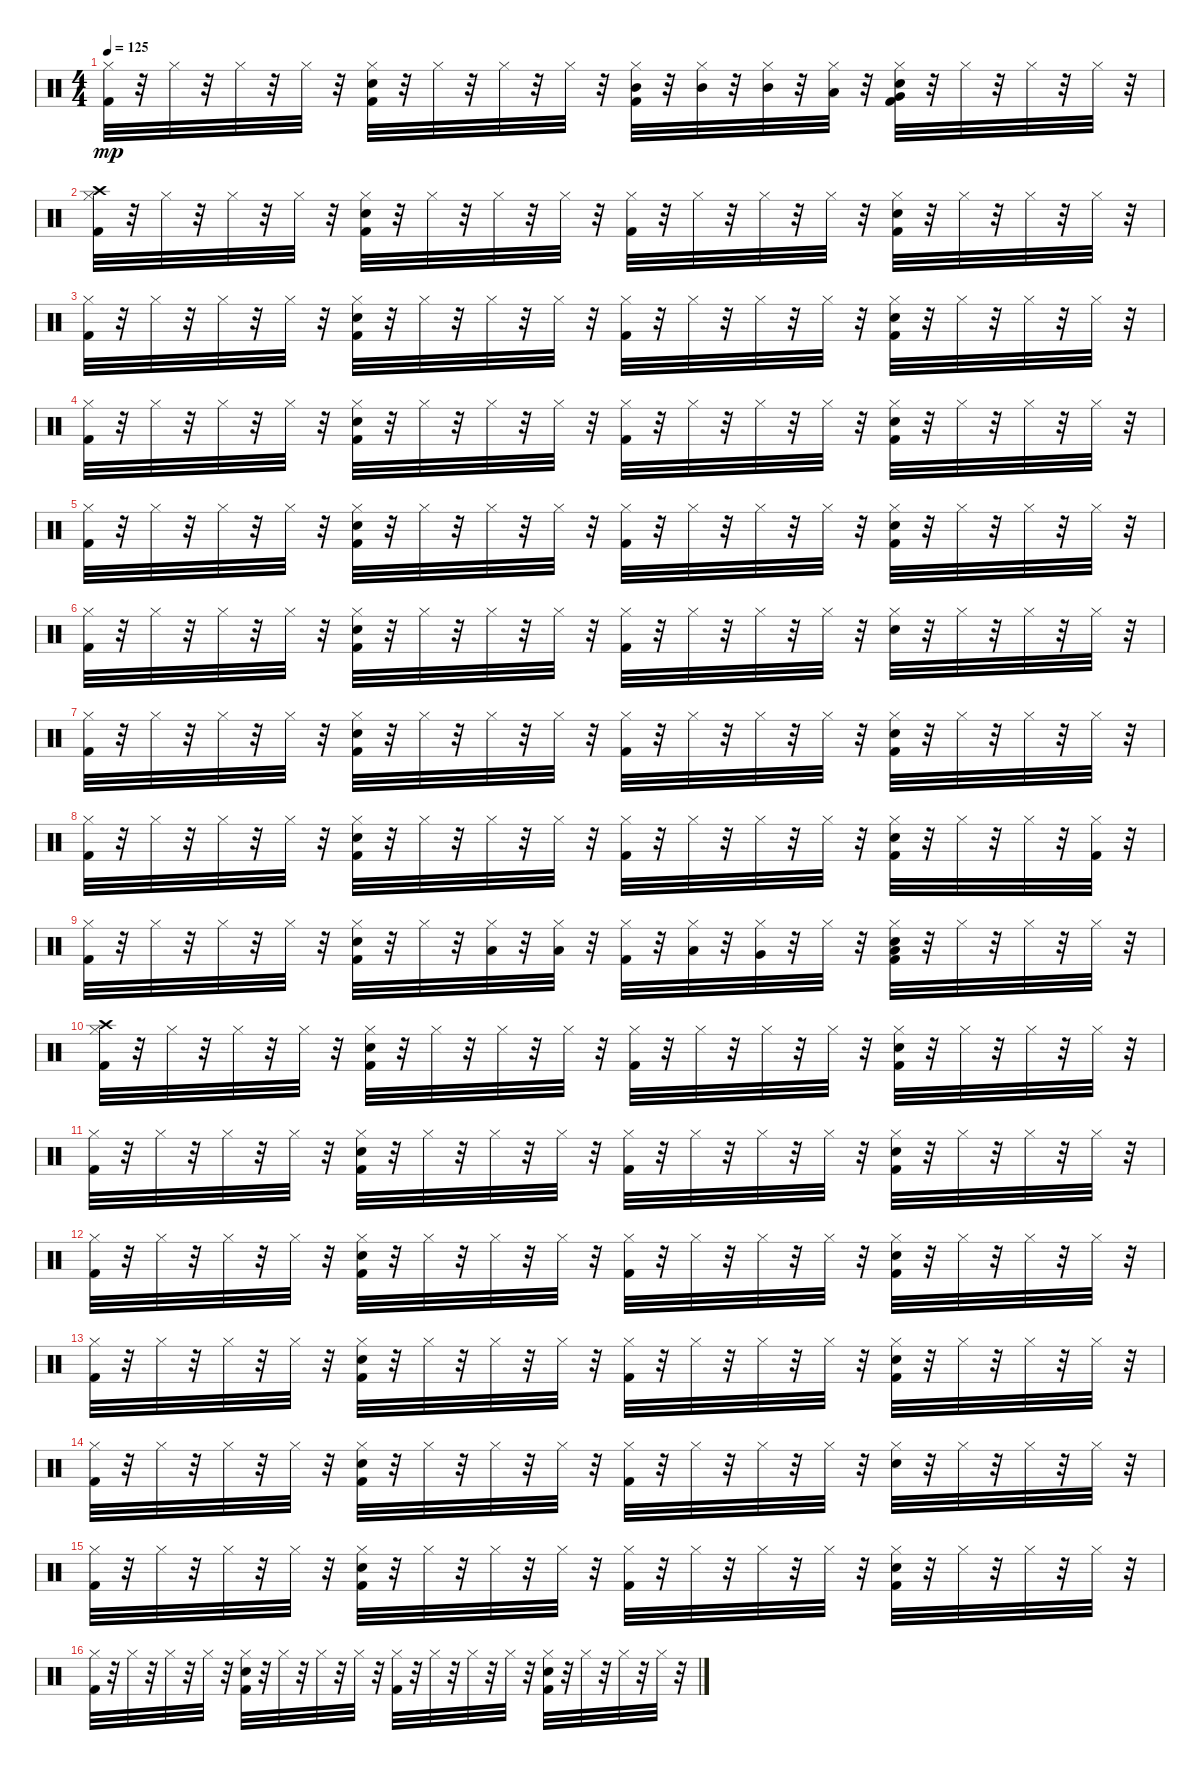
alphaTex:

\track "" {instrument percussion}
\staff {score}
\articulation defaults
\ts (4 4)
\tempo 125
\clef neutral
\ks c
("Kick (hit) 2" "Hi-Hat (closed)").32{dy mp} r.32 "Hi-Hat (closed)".32 r.32 "Hi-Hat (closed)".32 r.32 "Hi-Hat (closed)".32 r.32 ("Kick (hit) 2" "Snare (hit) 2" "Hi-Hat (closed)").32 r.32 "Hi-Hat (closed)".32 r.32 "Hi-Hat (closed)".32 r.32 "Hi-Hat (closed)".32 r.32 ("Mid Tom (hit)" "Kick (hit) 2" "Hi-Hat (closed)").32 r.32 ("Mid Tom (hit)" "Hi-Hat (closed)").32 r.32 ("Mid Tom (hit)" "Hi-Hat (closed)").32 r.32 ("Low Tom (hit)" "Hi-Hat (closed)").32 r.32 ("Very Low Tom (hit)" "Kick (hit) 2" "Snare (hit) 2" "Hi-Hat (closed)").32 r.32 "Hi-Hat (closed)".32 r.32 "Hi-Hat (closed)".32 r.32 "Hi-Hat (closed)".32 r.32 |
("Hi-Hat (closed)" "Kick (hit) 2" "Crash high (hit)").32 r.32 "Hi-Hat (closed)".32 r.32 "Hi-Hat (closed)".32 r.32 "Hi-Hat (closed)".32 r.32 ("Kick (hit) 2" "Hi-Hat (closed)" "Snare (hit) 2").32 r.32 "Hi-Hat (closed)".32 r.32 "Hi-Hat (closed)".32 r.32 "Hi-Hat (closed)".32 r.32 ("Hi-Hat (closed)" "Kick (hit) 2").32 r.32 "Hi-Hat (closed)".32 r.32 "Hi-Hat (closed)".32 r.32 "Hi-Hat (closed)".32 r.32 ("Kick (hit) 2" "Hi-Hat (closed)" "Snare (hit) 2").32 r.32 "Hi-Hat (closed)".32 r.32 "Hi-Hat (closed)".32 r.32 "Hi-Hat (closed)".32 r.32 |
("Kick (hit) 2" "Hi-Hat (closed)").32 r.32 "Hi-Hat (closed)".32 r.32 "Hi-Hat (closed)".32 r.32 "Hi-Hat (closed)".32 r.32 ("Kick (hit) 2" "Snare (hit) 2" "Hi-Hat (closed)").32 r.32 "Hi-Hat (closed)".32 r.32 "Hi-Hat (closed)".32 r.32 "Hi-Hat (closed)".32 r.32 ("Kick (hit) 2" "Hi-Hat (closed)").32 r.32 "Hi-Hat (closed)".32 r.32 "Hi-Hat (closed)".32 r.32 "Hi-Hat (closed)".32 r.32 ("Kick (hit) 2" "Snare (hit) 2" "Hi-Hat (closed)").32 r.32 "Hi-Hat (closed)".32 r.32 "Hi-Hat (closed)".32 r.32 "Hi-Hat (closed)".32 r.32 |
("Kick (hit) 2" "Hi-Hat (closed)").32 r.32 "Hi-Hat (closed)".32 r.32 "Hi-Hat (closed)".32 r.32 "Hi-Hat (closed)".32 r.32 ("Kick (hit) 2" "Snare (hit) 2" "Hi-Hat (closed)").32 r.32 "Hi-Hat (closed)".32 r.32 "Hi-Hat (closed)".32 r.32 "Hi-Hat (closed)".32 r.32 ("Kick (hit) 2" "Hi-Hat (closed)").32 r.32 "Hi-Hat (closed)".32 r.32 "Hi-Hat (closed)".32 r.32 "Hi-Hat (closed)".32 r.32 ("Kick (hit) 2" "Snare (hit) 2" "Hi-Hat (closed)").32 r.32 "Hi-Hat (closed)".32 r.32 "Hi-Hat (closed)".32 r.32 "Hi-Hat (closed)".32 r.32 |
("Kick (hit) 2" "Hi-Hat (closed)").32 r.32 "Hi-Hat (closed)".32 r.32 "Hi-Hat (closed)".32 r.32 "Hi-Hat (closed)".32 r.32 ("Kick (hit) 2" "Snare (hit) 2" "Hi-Hat (closed)").32 r.32 "Hi-Hat (closed)".32 r.32 "Hi-Hat (closed)".32 r.32 "Hi-Hat (closed)".32 r.32 ("Kick (hit) 2" "Hi-Hat (closed)").32 r.32 "Hi-Hat (closed)".32 r.32 "Hi-Hat (closed)".32 r.32 "Hi-Hat (closed)".32 r.32 ("Kick (hit) 2" "Snare (hit) 2" "Hi-Hat (closed)").32 r.32 "Hi-Hat (closed)".32 r.32 "Hi-Hat (closed)".32 r.32 "Hi-Hat (closed)".32 r.32 |
("Kick (hit) 2" "Hi-Hat (closed)").32 r.32 "Hi-Hat (closed)".32 r.32 "Hi-Hat (closed)".32 r.32 "Hi-Hat (closed)".32 r.32 ("Kick (hit) 2" "Snare (hit) 2" "Hi-Hat (closed)").32 r.32 "Hi-Hat (closed)".32 r.32 "Hi-Hat (closed)".32 r.32 "Hi-Hat (closed)".32 r.32 ("Kick (hit) 2" "Hi-Hat (closed)").32 r.32 "Hi-Hat (closed)".32 r.32 "Hi-Hat (closed)".32 r.32 "Hi-Hat (closed)".32 r.32 ("Snare (hit) 2" "Hi-Hat (closed)").32 r.32 "Hi-Hat (closed)".32 r.32 "Hi-Hat (closed)".32 r.32 "Hi-Hat (closed)".32 r.32 |
("Kick (hit) 2" "Hi-Hat (closed)").32 r.32 "Hi-Hat (closed)".32 r.32 "Hi-Hat (closed)".32 r.32 "Hi-Hat (closed)".32 r.32 ("Kick (hit) 2" "Snare (hit) 2" "Hi-Hat (closed)").32 r.32 "Hi-Hat (closed)".32 r.32 "Hi-Hat (closed)".32 r.32 "Hi-Hat (closed)".32 r.32 ("Kick (hit) 2" "Hi-Hat (closed)").32 r.32 "Hi-Hat (closed)".32 r.32 "Hi-Hat (closed)".32 r.32 "Hi-Hat (closed)".32 r.32 ("Kick (hit) 2" "Snare (hit) 2" "Hi-Hat (closed)").32 r.32 "Hi-Hat (closed)".32 r.32 "Hi-Hat (closed)".32 r.32 "Hi-Hat (closed)".32 r.32 |
("Kick (hit) 2" "Hi-Hat (closed)").32 r.32 "Hi-Hat (closed)".32 r.32 "Hi-Hat (closed)".32 r.32 "Hi-Hat (closed)".32 r.32 ("Kick (hit) 2" "Snare (hit) 2" "Hi-Hat (closed)").32 r.32 "Hi-Hat (closed)".32 r.32 "Hi-Hat (closed)".32 r.32 "Hi-Hat (closed)".32 r.32 ("Kick (hit) 2" "Hi-Hat (closed)").32 r.32 "Hi-Hat (closed)".32 r.32 "Hi-Hat (closed)".32 r.32 "Hi-Hat (closed)".32 r.32 ("Kick (hit) 2" "Snare (hit) 2" "Hi-Hat (closed)").32 r.32 "Hi-Hat (closed)".32 r.32 "Hi-Hat (closed)".32 r.32 ("Kick (hit) 2" "Hi-Hat (closed)").32 r.32 |
("Kick (hit) 2" "Hi-Hat (closed)").32 r.32 "Hi-Hat (closed)".32 r.32 "Hi-Hat (closed)".32 r.32 "Hi-Hat (closed)".32 r.32 ("Kick (hit) 2" "Snare (hit) 2" "Hi-Hat (closed)").32 r.32 "Hi-Hat (closed)".32 r.32 ("Low Tom (hit)" "Hi-Hat (closed)").32 r.32 ("Low Tom (hit)" "Hi-Hat (closed)").32 r.32 ("Kick (hit) 2" "Hi-Hat (closed)").32 r.32 ("Low Tom (hit)" "Hi-Hat (closed)").32 r.32 ("Very Low Tom (hit)" "Hi-Hat (closed)").32 r.32 "Hi-Hat (closed)".32 r.32 ("Kick (hit) 2" "Low Floor Tom (hit)" "Snare (hit) 2" "Hi-Hat (closed)").32 r.32 "Hi-Hat (closed)".32 r.32 "Hi-Hat (closed)".32 r.32 "Hi-Hat (closed)".32 r.32 |
("Hi-Hat (closed)" "Kick (hit) 2" "Crash high (hit)").32 r.32 "Hi-Hat (closed)".32 r.32 "Hi-Hat (closed)".32 r.32 "Hi-Hat (closed)".32 r.32 ("Kick (hit) 2" "Hi-Hat (closed)" "Snare (hit) 2").32 r.32 "Hi-Hat (closed)".32 r.32 "Hi-Hat (closed)".32 r.32 "Hi-Hat (closed)".32 r.32 ("Hi-Hat (closed)" "Kick (hit) 2").32 r.32 "Hi-Hat (closed)".32 r.32 "Hi-Hat (closed)".32 r.32 "Hi-Hat (closed)".32 r.32 ("Kick (hit) 2" "Hi-Hat (closed)" "Snare (hit) 2").32 r.32 "Hi-Hat (closed)".32 r.32 "Hi-Hat (closed)".32 r.32 "Hi-Hat (closed)".32 r.32 |
("Kick (hit) 2" "Hi-Hat (closed)").32 r.32 "Hi-Hat (closed)".32 r.32 "Hi-Hat (closed)".32 r.32 "Hi-Hat (closed)".32 r.32 ("Kick (hit) 2" "Snare (hit) 2" "Hi-Hat (closed)").32 r.32 "Hi-Hat (closed)".32 r.32 "Hi-Hat (closed)".32 r.32 "Hi-Hat (closed)".32 r.32 ("Kick (hit) 2" "Hi-Hat (closed)").32 r.32 "Hi-Hat (closed)".32 r.32 "Hi-Hat (closed)".32 r.32 "Hi-Hat (closed)".32 r.32 ("Kick (hit) 2" "Snare (hit) 2" "Hi-Hat (closed)").32 r.32 "Hi-Hat (closed)".32 r.32 "Hi-Hat (closed)".32 r.32 "Hi-Hat (closed)".32 r.32 |
("Kick (hit) 2" "Hi-Hat (closed)").32 r.32 "Hi-Hat (closed)".32 r.32 "Hi-Hat (closed)".32 r.32 "Hi-Hat (closed)".32 r.32 ("Kick (hit) 2" "Snare (hit) 2" "Hi-Hat (closed)").32 r.32 "Hi-Hat (closed)".32 r.32 "Hi-Hat (closed)".32 r.32 "Hi-Hat (closed)".32 r.32 ("Kick (hit) 2" "Hi-Hat (closed)").32 r.32 "Hi-Hat (closed)".32 r.32 "Hi-Hat (closed)".32 r.32 "Hi-Hat (closed)".32 r.32 ("Kick (hit) 2" "Snare (hit) 2" "Hi-Hat (closed)").32 r.32 "Hi-Hat (closed)".32 r.32 "Hi-Hat (closed)".32 r.32 "Hi-Hat (closed)".32 r.32 |
("Kick (hit) 2" "Hi-Hat (closed)").32 r.32 "Hi-Hat (closed)".32 r.32 "Hi-Hat (closed)".32 r.32 "Hi-Hat (closed)".32 r.32 ("Kick (hit) 2" "Snare (hit) 2" "Hi-Hat (closed)").32 r.32 "Hi-Hat (closed)".32 r.32 "Hi-Hat (closed)".32 r.32 "Hi-Hat (closed)".32 r.32 ("Kick (hit) 2" "Hi-Hat (closed)").32 r.32 "Hi-Hat (closed)".32 r.32 "Hi-Hat (closed)".32 r.32 "Hi-Hat (closed)".32 r.32 ("Kick (hit) 2" "Snare (hit) 2" "Hi-Hat (closed)").32 r.32 "Hi-Hat (closed)".32 r.32 "Hi-Hat (closed)".32 r.32 "Hi-Hat (closed)".32 r.32 |
("Kick (hit) 2" "Hi-Hat (closed)").32 r.32 "Hi-Hat (closed)".32 r.32 "Hi-Hat (closed)".32 r.32 "Hi-Hat (closed)".32 r.32 ("Kick (hit) 2" "Snare (hit) 2" "Hi-Hat (closed)").32 r.32 "Hi-Hat (closed)".32 r.32 "Hi-Hat (closed)".32 r.32 "Hi-Hat (closed)".32 r.32 ("Kick (hit) 2" "Hi-Hat (closed)").32 r.32 "Hi-Hat (closed)".32 r.32 "Hi-Hat (closed)".32 r.32 "Hi-Hat (closed)".32 r.32 ("Snare (hit) 2" "Hi-Hat (closed)").32 r.32 "Hi-Hat (closed)".32 r.32 "Hi-Hat (closed)".32 r.32 "Hi-Hat (closed)".32 r.32 |
("Kick (hit) 2" "Hi-Hat (closed)").32 r.32 "Hi-Hat (closed)".32 r.32 "Hi-Hat (closed)".32 r.32 "Hi-Hat (closed)".32 r.32 ("Kick (hit) 2" "Snare (hit) 2" "Hi-Hat (closed)").32 r.32 "Hi-Hat (closed)".32 r.32 "Hi-Hat (closed)".32 r.32 "Hi-Hat (closed)".32 r.32 ("Kick (hit) 2" "Hi-Hat (closed)").32 r.32 "Hi-Hat (closed)".32 r.32 "Hi-Hat (closed)".32 r.32 "Hi-Hat (closed)".32 r.32 ("Kick (hit) 2" "Snare (hit) 2" "Hi-Hat (closed)").32 r.32 "Hi-Hat (closed)".32 r.32 "Hi-Hat (closed)".32 r.32 "Hi-Hat (closed)".32 r.32 |
("Kick (hit) 2" "Hi-Hat (closed)").32 r.32 "Hi-Hat (closed)".32 r.32 "Hi-Hat (closed)".32 r.32 "Hi-Hat (closed)".32 r.32 ("Kick (hit) 2" "Snare (hit) 2" "Hi-Hat (closed)").32 r.32 "Hi-Hat (closed)".32 r.32 "Hi-Hat (closed)".32 r.32 "Hi-Hat (closed)".32 r.32 ("Kick (hit) 2" "Hi-Hat (closed)").32 r.32 "Hi-Hat (closed)".32 r.32 "Hi-Hat (closed)".32 r.32 "Hi-Hat (closed)".32 r.32 ("Kick (hit) 2" "Snare (hit) 2" "Hi-Hat (closed)").32 r.32 "Hi-Hat (closed)".32 r.32 "Hi-Hat (closed)".32 r.32 "Hi-Hat (closed)".32 r.32
